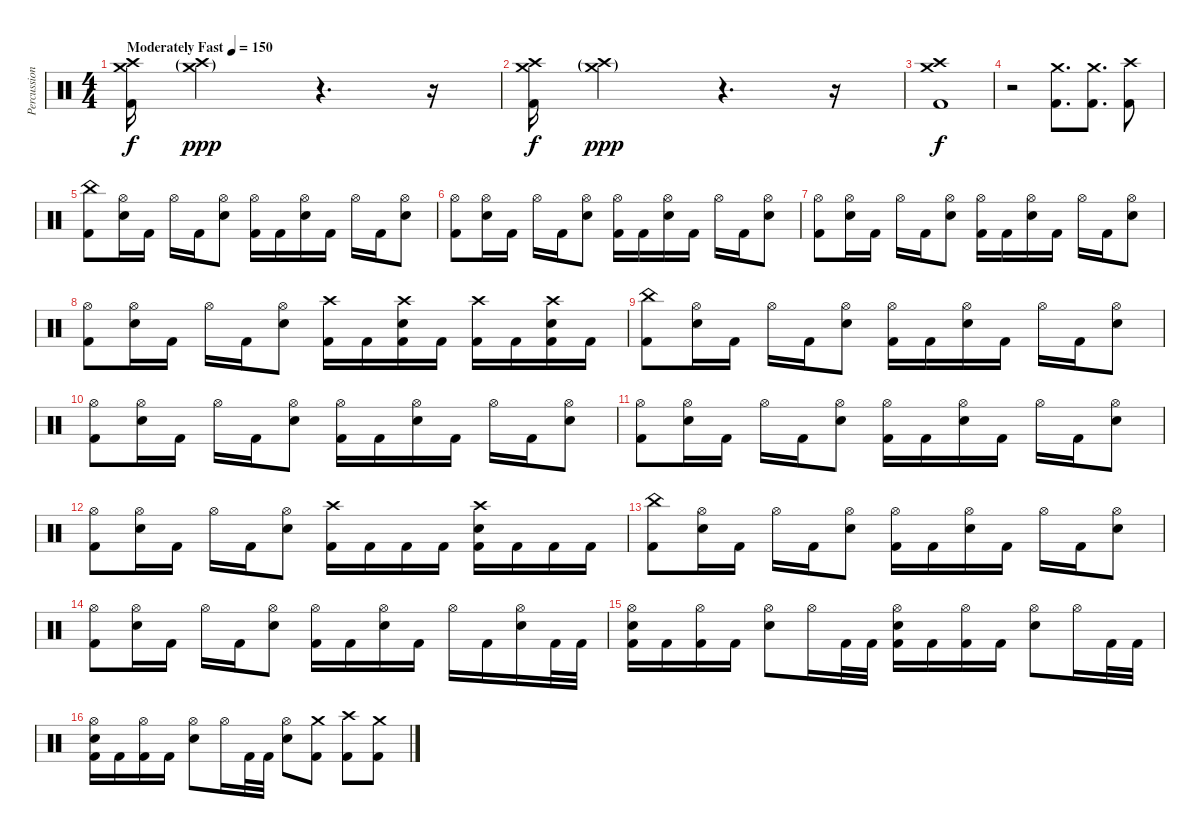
\track ("Percussion" "Percussion") {instrument percussion}
\staff {score}
\articulation defaults
\ts (4 4)
\tempo (150 "Moderately Fast")
\clef neutral
\ks c
("Crash high (hit)" "Crash medium (hit)" "Kick (hit) 2").16{dy f} ("Crash high (hit)"{g} "Crash medium (hit)"{g}).2{dy ppp} r.4{d} r.16 |
("Crash high (hit)" "Crash medium (hit)" "Kick (hit) 2").16{dy f} ("Crash high (hit)"{g} "Crash medium (hit)"{g}).2{dy ppp} r.4{d} r.16 |
("Crash high (hit)" "Crash medium (hit)" "Kick (hit) 2").1{dy f} |
r.2 ("Crash medium (hit)" "Kick (hit) 2").8{d} ("Crash medium (hit)" "Kick (hit) 2").8{d} ("Crash high (hit)" "Kick (hit) 2").8 |
("China (hit)" "Kick (hit) 2").8 ("Hi-Hat (open)" "Electric Snare (hit)").16 "Kick (hit) 2".16 "Hi-Hat (open)".16 "Kick (hit) 2".16 ("Hi-Hat (open)" "Electric Snare (hit)").8 ("Hi-Hat (open)" "Kick (hit) 2").16 "Kick (hit) 2".16 ("Hi-Hat (open)" "Electric Snare (hit)").16 "Kick (hit) 2".16 "Hi-Hat (open)".16 "Kick (hit) 2".16 ("Hi-Hat (open)" "Electric Snare (hit)").8 |
("Hi-Hat (open)" "Kick (hit) 2").8 ("Hi-Hat (open)" "Electric Snare (hit)").16 "Kick (hit) 2".16 "Hi-Hat (open)".16 "Kick (hit) 2".16 ("Hi-Hat (open)" "Electric Snare (hit)").8 ("Hi-Hat (open)" "Kick (hit) 2").16 "Kick (hit) 2".16 ("Hi-Hat (open)" "Electric Snare (hit)").16 "Kick (hit) 2".16 "Hi-Hat (open)".16 "Kick (hit) 2".16 ("Hi-Hat (open)" "Electric Snare (hit)").8 |
("Hi-Hat (open)" "Kick (hit) 2").8 ("Hi-Hat (open)" "Electric Snare (hit)").16 "Kick (hit) 2".16 "Hi-Hat (open)".16 "Kick (hit) 2".16 ("Hi-Hat (open)" "Electric Snare (hit)").8 ("Hi-Hat (open)" "Kick (hit) 2").16 "Kick (hit) 2".16 ("Hi-Hat (open)" "Electric Snare (hit)").16 "Kick (hit) 2".16 "Hi-Hat (open)".16 "Kick (hit) 2".16 ("Hi-Hat (open)" "Electric Snare (hit)").8 |
("Hi-Hat (open)" "Kick (hit) 2").8 ("Hi-Hat (open)" "Electric Snare (hit)").16 "Kick (hit) 2".16 "Hi-Hat (open)".16 "Kick (hit) 2".16 ("Hi-Hat (open)" "Electric Snare (hit)").8 ("Crash high (hit)" "Kick (hit) 2").16 "Kick (hit) 2".16 ("Crash high (hit)" "Electric Snare (hit)" "Kick (hit) 2").16 "Kick (hit) 2".16 ("Crash high (hit)" "Kick (hit) 2").16 "Kick (hit) 2".16 ("Crash high (hit)" "Electric Snare (hit)" "Kick (hit) 2").16 "Kick (hit) 2".16 |
("China (hit)" "Kick (hit) 2").8 ("Hi-Hat (open)" "Electric Snare (hit)").16 "Kick (hit) 2".16 "Hi-Hat (open)".16 "Kick (hit) 2".16 ("Hi-Hat (open)" "Electric Snare (hit)").8 ("Hi-Hat (open)" "Kick (hit) 2").16 "Kick (hit) 2".16 ("Hi-Hat (open)" "Electric Snare (hit)").16 "Kick (hit) 2".16 "Hi-Hat (open)".16 "Kick (hit) 2".16 ("Hi-Hat (open)" "Electric Snare (hit)").8 |
("Hi-Hat (open)" "Kick (hit) 2").8 ("Hi-Hat (open)" "Electric Snare (hit)").16 "Kick (hit) 2".16 "Hi-Hat (open)".16 "Kick (hit) 2".16 ("Hi-Hat (open)" "Electric Snare (hit)").8 ("Hi-Hat (open)" "Kick (hit) 2").16 "Kick (hit) 2".16 ("Hi-Hat (open)" "Electric Snare (hit)").16 "Kick (hit) 2".16 "Hi-Hat (open)".16 "Kick (hit) 2".16 ("Hi-Hat (open)" "Electric Snare (hit)").8 |
("Hi-Hat (open)" "Kick (hit) 2").8 ("Hi-Hat (open)" "Electric Snare (hit)").16 "Kick (hit) 2".16 "Hi-Hat (open)".16 "Kick (hit) 2".16 ("Hi-Hat (open)" "Electric Snare (hit)").8 ("Hi-Hat (open)" "Kick (hit) 2").16 "Kick (hit) 2".16 ("Hi-Hat (open)" "Electric Snare (hit)").16 "Kick (hit) 2".16 "Hi-Hat (open)".16 "Kick (hit) 2".16 ("Hi-Hat (open)" "Electric Snare (hit)").8 |
("Hi-Hat (open)" "Kick (hit) 2").8 ("Hi-Hat (open)" "Electric Snare (hit)").16 "Kick (hit) 2".16 "Hi-Hat (open)".16 "Kick (hit) 2".16 ("Hi-Hat (open)" "Electric Snare (hit)").8 ("Crash high (hit)" "Kick (hit) 2").16 "Kick (hit) 2".16 "Kick (hit) 2".16 "Kick (hit) 2".16 ("Crash high (hit)" "Electric Snare (hit)" "Kick (hit) 2").16 "Kick (hit) 2".16 "Kick (hit) 2".16 "Kick (hit) 2".16 |
("China (hit)" "Kick (hit) 2").8 ("Hi-Hat (open)" "Electric Snare (hit)").16 "Kick (hit) 2".16 "Hi-Hat (open)".16 "Kick (hit) 2".16 ("Hi-Hat (open)" "Electric Snare (hit)").8 ("Hi-Hat (open)" "Kick (hit) 2").16 "Kick (hit) 2".16 ("Hi-Hat (open)" "Electric Snare (hit)").16 "Kick (hit) 2".16 "Hi-Hat (open)".16 "Kick (hit) 2".16 ("Hi-Hat (open)" "Electric Snare (hit)").8 |
("Hi-Hat (open)" "Kick (hit) 2").8 ("Hi-Hat (open)" "Electric Snare (hit)").16 "Kick (hit) 2".16 "Hi-Hat (open)".16 "Kick (hit) 2".16 ("Hi-Hat (open)" "Electric Snare (hit)").8 ("Hi-Hat (open)" "Kick (hit) 2").16 "Kick (hit) 2".16 ("Hi-Hat (open)" "Electric Snare (hit)").16 "Kick (hit) 2".16 "Hi-Hat (open)".16 "Kick (hit) 2".16 ("Hi-Hat (open)" "Electric Snare (hit)").16 "Kick (hit) 2".32 "Kick (hit) 2".32 |
("Hi-Hat (open)" "Electric Snare (hit)" "Kick (hit) 2").16 "Kick (hit) 2".16 ("Hi-Hat (open)" "Kick (hit) 2").16 "Kick (hit) 2".16 ("Hi-Hat (open)" "Electric Snare (hit)").8 "Hi-Hat (open)".16 "Kick (hit) 2".32 "Kick (hit) 2".32 ("Hi-Hat (open)" "Electric Snare (hit)" "Kick (hit) 2").16 "Kick (hit) 2".16 ("Hi-Hat (open)" "Kick (hit) 2").16 "Kick (hit) 2".16 ("Hi-Hat (open)" "Electric Snare (hit)").8 "Hi-Hat (open)".16 "Kick (hit) 2".32 "Kick (hit) 2".32 |
("Hi-Hat (open)" "Electric Snare (hit)" "Kick (hit) 2").16 "Kick (hit) 2".16 ("Hi-Hat (open)" "Kick (hit) 2").16 "Kick (hit) 2".16 ("Hi-Hat (open)" "Electric Snare (hit)").8 "Hi-Hat (open)".16 "Kick (hit) 2".32 "Kick (hit) 2".32 ("Hi-Hat (open)" "Electric Snare (hit)").8 ("Crash medium (hit)" "Kick (hit) 2").8 ("Crash high (hit)" "Kick (hit) 2").8 ("Crash medium (hit)" "Kick (hit) 2").8
